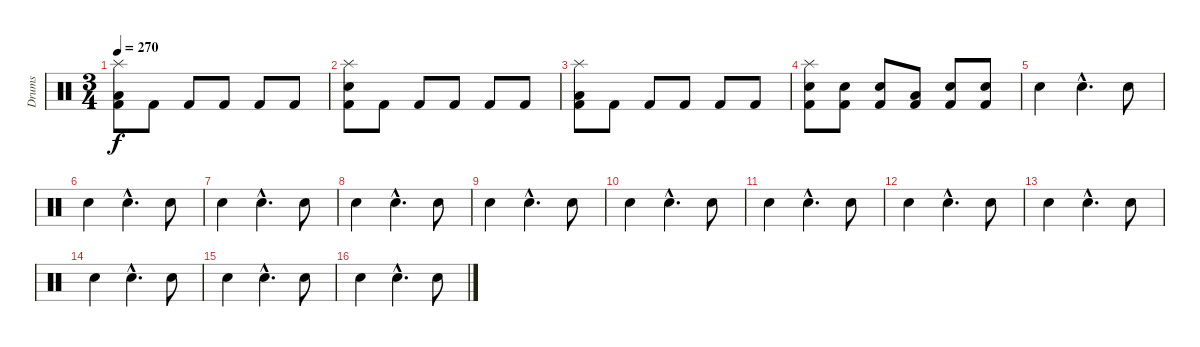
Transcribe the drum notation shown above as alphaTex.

\track ("Drums" "Drums") {instrument percussion}
\staff {score}
\articulation defaults
\ts (3 4)
\tempo 270
\clef neutral
\ks c
("Splash (hit)" "Low Tom (hit)" "Kick (hit) 2").8{dy f} "Kick (hit) 2".8 "Kick (hit) 2".8 "Kick (hit) 2".8 "Kick (hit) 2".8 "Kick (hit) 2".8 |
("Splash (hit)" "Electric Snare (hit)" "Kick (hit) 2").8 "Kick (hit) 2".8 "Kick (hit) 2".8 "Kick (hit) 2".8 "Kick (hit) 2".8 "Kick (hit) 2".8 |
("Splash (hit)" "Low Tom (hit)" "Kick (hit) 2").8 "Kick (hit) 2".8 "Kick (hit) 2".8 "Kick (hit) 2".8 "Kick (hit) 2".8 "Kick (hit) 2".8 |
("Splash (hit)" "Electric Snare (hit)" "Kick (hit) 2").8 ("Electric Snare (hit)" "Kick (hit) 2").8 ("Electric Snare (hit)" "Kick (hit) 2").8 ("Low Tom (hit)" "Kick (hit) 2").8 ("Electric Snare (hit)" "Kick (hit) 2").8 ("Electric Snare (hit)" "Kick (hit) 2").8 |
"Electric Snare (hit)".4 "Electric Snare (hit)"{hac}.4{d} "Electric Snare (hit)".8 |
"Electric Snare (hit)".4 "Electric Snare (hit)"{hac}.4{d} "Electric Snare (hit)".8 |
"Electric Snare (hit)".4 "Electric Snare (hit)"{hac}.4{d} "Electric Snare (hit)".8 |
"Electric Snare (hit)".4 "Electric Snare (hit)"{hac}.4{d} "Electric Snare (hit)".8 |
"Electric Snare (hit)".4 "Electric Snare (hit)"{hac}.4{d} "Electric Snare (hit)".8 |
"Electric Snare (hit)".4 "Electric Snare (hit)"{hac}.4{d} "Electric Snare (hit)".8 |
"Electric Snare (hit)".4 "Electric Snare (hit)"{hac}.4{d} "Electric Snare (hit)".8 |
"Electric Snare (hit)".4 "Electric Snare (hit)"{hac}.4{d} "Electric Snare (hit)".8 |
"Electric Snare (hit)".4 "Electric Snare (hit)"{hac}.4{d} "Electric Snare (hit)".8 |
"Electric Snare (hit)".4 "Electric Snare (hit)"{hac}.4{d} "Electric Snare (hit)".8 |
"Electric Snare (hit)".4 "Electric Snare (hit)"{hac}.4{d} "Electric Snare (hit)".8 |
"Electric Snare (hit)".4 "Electric Snare (hit)"{hac}.4{d} "Electric Snare (hit)".8
